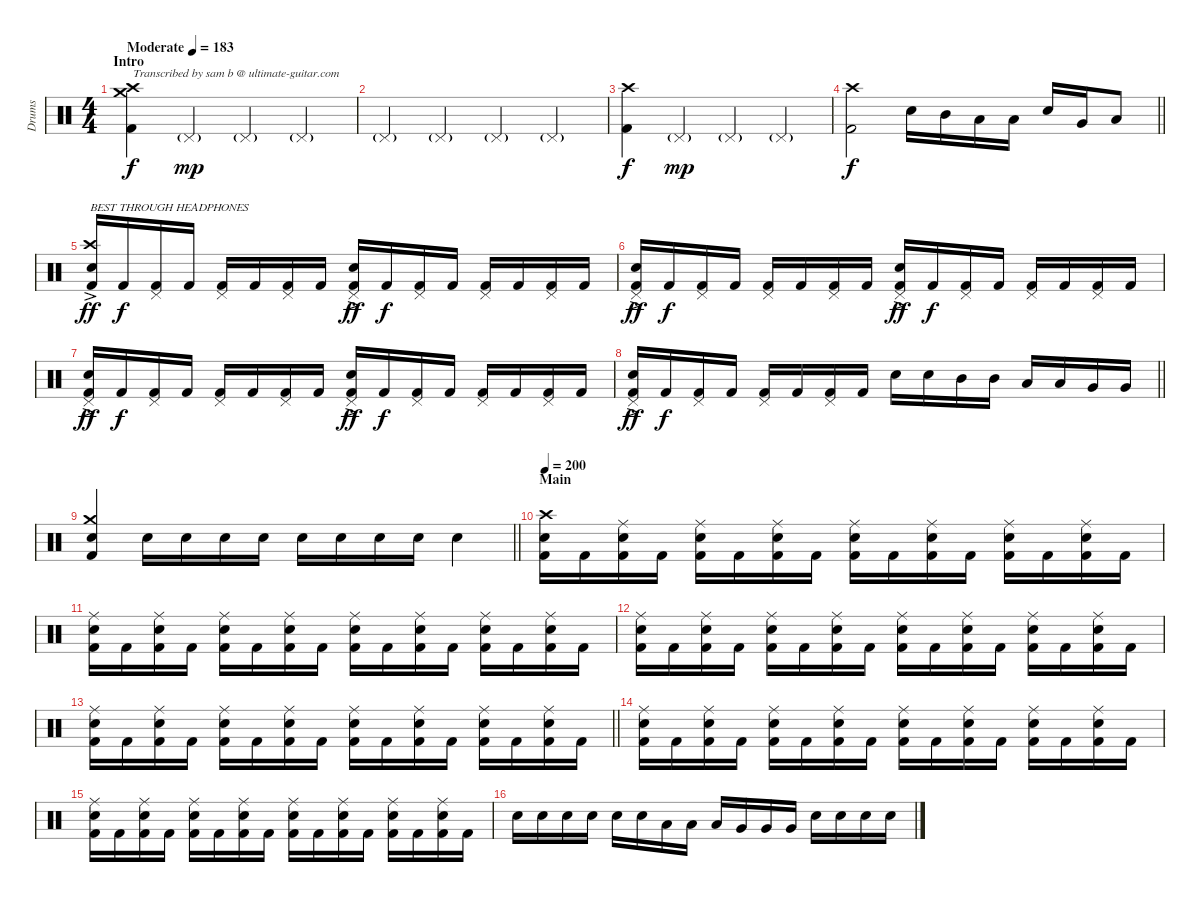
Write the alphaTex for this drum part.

\track ("Drums" "Drums") {instrument percussion}
\staff {score}
\articulation defaults
\ts (4 4)
\section ("" "Intro")
\tempo (183 "Moderate")
\clef neutral
\ks c
("Kick (hit) 2" "Crash medium (hit)" "Crash high (hit)").4{txt "Transcribed by sam b @ ultimate-guitar.com" dy f} "Pedal Hi-Hat (hit)"{g}.4{dy mp} "Pedal Hi-Hat (hit)"{g}.4 "Pedal Hi-Hat (hit)"{g}.4 |
"Pedal Hi-Hat (hit)"{g}.4 "Pedal Hi-Hat (hit)"{g}.4 "Pedal Hi-Hat (hit)"{g}.4 "Pedal Hi-Hat (hit)"{g}.4 |
("Kick (hit) 2" "Crash high (hit)").4{dy f} "Pedal Hi-Hat (hit)"{g}.4{dy mp} "Pedal Hi-Hat (hit)"{g}.4 "Pedal Hi-Hat (hit)"{g}.4 |
\barLineRight lightlight
("Kick (hit) 2" "Crash high (hit)").2{dy f} "Snare (hit) 2".16 "Mid Tom (hit)".16 "Low Tom (hit)".16 "Low Tom (hit)".16 "Snare (hit) 2".16 "Very Low Tom (hit)".16 "Low Floor Tom (hit)".8 |
\section ("" "")
("Kick (hit) 2" "Snare (hit) 2"{ac} "Crash high (hit)").16{txt "BEST THROUGH HEADPHONES" dy ff} "Kick (hit) 2".16{dy f} ("Kick (hit) 2" "Pedal Hi-Hat (hit)").16 "Kick (hit) 2".16 ("Kick (hit) 2" "Pedal Hi-Hat (hit)").16 "Kick (hit) 2".16 ("Kick (hit) 2" "Pedal Hi-Hat (hit)").16 "Kick (hit) 2".16 ("Kick (hit) 2" "Snare (hit) 2"{ac} "Pedal Hi-Hat (hit)").16{dy ff} "Kick (hit) 2".16{dy f} ("Kick (hit) 2" "Pedal Hi-Hat (hit)").16 "Kick (hit) 2".16 ("Kick (hit) 2" "Pedal Hi-Hat (hit)").16 "Kick (hit) 2".16 ("Kick (hit) 2" "Pedal Hi-Hat (hit)").16 "Kick (hit) 2".16 |
("Kick (hit) 2" "Snare (hit) 2"{ac} "Pedal Hi-Hat (hit)").16{dy ff} "Kick (hit) 2".16{dy f} ("Kick (hit) 2" "Pedal Hi-Hat (hit)").16 "Kick (hit) 2".16 ("Kick (hit) 2" "Pedal Hi-Hat (hit)").16 "Kick (hit) 2".16 ("Kick (hit) 2" "Pedal Hi-Hat (hit)").16 "Kick (hit) 2".16 ("Kick (hit) 2" "Snare (hit) 2"{ac} "Pedal Hi-Hat (hit)").16{dy ff} "Kick (hit) 2".16{dy f} ("Kick (hit) 2" "Pedal Hi-Hat (hit)").16 "Kick (hit) 2".16 ("Kick (hit) 2" "Pedal Hi-Hat (hit)").16 "Kick (hit) 2".16 ("Kick (hit) 2" "Pedal Hi-Hat (hit)").16 "Kick (hit) 2".16 |
("Kick (hit) 2" "Snare (hit) 2"{ac} "Pedal Hi-Hat (hit)").16{dy ff} "Kick (hit) 2".16{dy f} ("Kick (hit) 2" "Pedal Hi-Hat (hit)").16 "Kick (hit) 2".16 ("Kick (hit) 2" "Pedal Hi-Hat (hit)").16 "Kick (hit) 2".16 ("Kick (hit) 2" "Pedal Hi-Hat (hit)").16 "Kick (hit) 2".16 ("Kick (hit) 2" "Snare (hit) 2"{ac} "Pedal Hi-Hat (hit)").16{dy ff} "Kick (hit) 2".16{dy f} ("Kick (hit) 2" "Pedal Hi-Hat (hit)").16 "Kick (hit) 2".16 ("Kick (hit) 2" "Pedal Hi-Hat (hit)").16 "Kick (hit) 2".16 ("Kick (hit) 2" "Pedal Hi-Hat (hit)").16 "Kick (hit) 2".16 |
\barLineRight lightlight
("Kick (hit) 2" "Snare (hit) 2"{ac} "Pedal Hi-Hat (hit)").16{dy ff} "Kick (hit) 2".16{dy f} ("Kick (hit) 2" "Pedal Hi-Hat (hit)").16 "Kick (hit) 2".16 ("Kick (hit) 2" "Pedal Hi-Hat (hit)").16 "Kick (hit) 2".16 ("Kick (hit) 2" "Pedal Hi-Hat (hit)").16 "Kick (hit) 2".16 "Snare (hit) 2".16 "Snare (hit) 2".16 "Mid Tom (hit)".16 "Mid Tom (hit)".16 "Low Tom (hit)".16 "Low Tom (hit)".16 "Very Low Tom (hit)".16 "Very Low Tom (hit)".16 |
\section ("" "")
\barLineRight lightlight
("Kick (hit) 2" "Snare (hit) 2" "Crash medium (hit)").4 "Snare (hit) 2".16 "Snare (hit) 2".16 "Snare (hit) 2".16 "Snare (hit) 2".16 "Snare (hit) 2".16 "Snare (hit) 2".16 "Snare (hit) 2".16 "Snare (hit) 2".16 "Snare (hit) 2".4 |
\section ("" "Main")
\tempo 200
("Kick (hit) 2" "Snare (hit) 2" "Crash high (hit)").16{volume 12} "Kick (hit) 2".16 ("Kick (hit) 2" "Snare (hit) 2" "Ride (middle)").16 "Kick (hit) 2".16 ("Kick (hit) 2" "Snare (hit) 2" "Ride (middle)").16 "Kick (hit) 2".16 ("Kick (hit) 2" "Snare (hit) 2" "Ride (middle)").16 "Kick (hit) 2".16 ("Kick (hit) 2" "Snare (hit) 2" "Ride (middle)").16 "Kick (hit) 2".16 ("Kick (hit) 2" "Snare (hit) 2" "Ride (middle)").16 "Kick (hit) 2".16 ("Kick (hit) 2" "Snare (hit) 2" "Ride (middle)").16 "Kick (hit) 2".16 ("Kick (hit) 2" "Snare (hit) 2" "Ride (middle)").16 "Kick (hit) 2".16 |
("Kick (hit) 2" "Snare (hit) 2" "Ride (middle)").16 "Kick (hit) 2".16 ("Kick (hit) 2" "Snare (hit) 2" "Ride (middle)").16 "Kick (hit) 2".16 ("Kick (hit) 2" "Snare (hit) 2" "Ride (middle)").16 "Kick (hit) 2".16 ("Kick (hit) 2" "Snare (hit) 2" "Ride (middle)").16 "Kick (hit) 2".16 ("Kick (hit) 2" "Snare (hit) 2" "Ride (middle)").16 "Kick (hit) 2".16 ("Kick (hit) 2" "Snare (hit) 2" "Ride (middle)").16 "Kick (hit) 2".16 ("Kick (hit) 2" "Snare (hit) 2" "Ride (middle)").16 "Kick (hit) 2".16 ("Kick (hit) 2" "Snare (hit) 2" "Ride (middle)").16 "Kick (hit) 2".16 |
("Kick (hit) 2" "Snare (hit) 2" "Ride (middle)").16 "Kick (hit) 2".16 ("Kick (hit) 2" "Snare (hit) 2" "Ride (middle)").16 "Kick (hit) 2".16 ("Kick (hit) 2" "Snare (hit) 2" "Ride (middle)").16 "Kick (hit) 2".16 ("Kick (hit) 2" "Snare (hit) 2" "Ride (middle)").16 "Kick (hit) 2".16 ("Kick (hit) 2" "Snare (hit) 2" "Ride (middle)").16 "Kick (hit) 2".16 ("Kick (hit) 2" "Snare (hit) 2" "Ride (middle)").16 "Kick (hit) 2".16 ("Kick (hit) 2" "Snare (hit) 2" "Ride (middle)").16 "Kick (hit) 2".16 ("Kick (hit) 2" "Snare (hit) 2" "Ride (middle)").16 "Kick (hit) 2".16 |
\barLineRight lightlight
("Kick (hit) 2" "Snare (hit) 2" "Ride (middle)").16 "Kick (hit) 2".16 ("Kick (hit) 2" "Snare (hit) 2" "Ride (middle)").16 "Kick (hit) 2".16 ("Kick (hit) 2" "Snare (hit) 2" "Ride (middle)").16 "Kick (hit) 2".16 ("Kick (hit) 2" "Snare (hit) 2" "Ride (middle)").16 "Kick (hit) 2".16 ("Kick (hit) 2" "Snare (hit) 2" "Ride (middle)").16 "Kick (hit) 2".16 ("Kick (hit) 2" "Snare (hit) 2" "Ride (middle)").16 "Kick (hit) 2".16 ("Kick (hit) 2" "Snare (hit) 2" "Ride (middle)").16 "Kick (hit) 2".16 ("Kick (hit) 2" "Snare (hit) 2" "Ride (middle)").16 "Kick (hit) 2".16 |
\section ("" "")
("Kick (hit) 2" "Snare (hit) 2" "Ride (middle)").16 "Kick (hit) 2".16 ("Kick (hit) 2" "Snare (hit) 2" "Ride (middle)").16 "Kick (hit) 2".16 ("Kick (hit) 2" "Snare (hit) 2" "Ride (middle)").16 "Kick (hit) 2".16 ("Kick (hit) 2" "Snare (hit) 2" "Ride (middle)").16 "Kick (hit) 2".16 ("Kick (hit) 2" "Snare (hit) 2" "Ride (middle)").16 "Kick (hit) 2".16 ("Kick (hit) 2" "Snare (hit) 2" "Ride (middle)").16 "Kick (hit) 2".16 ("Kick (hit) 2" "Snare (hit) 2" "Ride (middle)").16 "Kick (hit) 2".16 ("Kick (hit) 2" "Snare (hit) 2" "Ride (middle)").16 "Kick (hit) 2".16 |
("Kick (hit) 2" "Snare (hit) 2" "Ride (middle)").16 "Kick (hit) 2".16 ("Kick (hit) 2" "Snare (hit) 2" "Ride (middle)").16 "Kick (hit) 2".16 ("Kick (hit) 2" "Snare (hit) 2" "Ride (middle)").16 "Kick (hit) 2".16 ("Kick (hit) 2" "Snare (hit) 2" "Ride (middle)").16 "Kick (hit) 2".16 ("Kick (hit) 2" "Snare (hit) 2" "Ride (middle)").16 "Kick (hit) 2".16 ("Kick (hit) 2" "Snare (hit) 2" "Ride (middle)").16 "Kick (hit) 2".16 ("Kick (hit) 2" "Snare (hit) 2" "Ride (middle)").16 "Kick (hit) 2".16 ("Kick (hit) 2" "Snare (hit) 2" "Ride (middle)").16 "Kick (hit) 2".16 |
"Snare (hit) 2".16 "Snare (hit) 2".16 "Snare (hit) 2".16 "Snare (hit) 2".16 "Snare (hit) 2".16 "Snare (hit) 2".16 "Low Tom (hit)".16 "Low Tom (hit)".16 "Low Tom (hit)".16 "Very Low Tom (hit)".16 "Very Low Tom (hit)".16 "Very Low Tom (hit)".16 "Snare (hit) 2".16 "Snare (hit) 2".16 "Snare (hit) 2".16 "Snare (hit) 2".16
